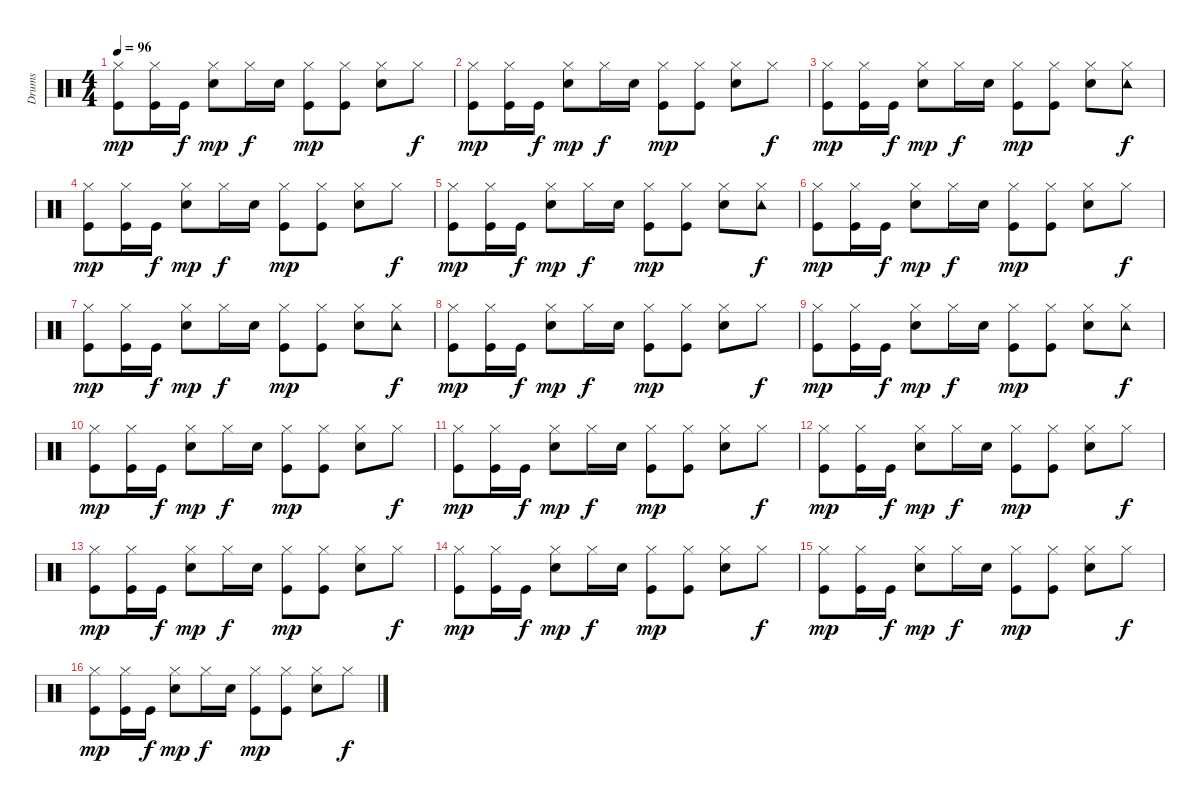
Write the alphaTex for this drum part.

\track ("Drums" "Drums") {instrument percussion}
\staff {score}
\articulation defaults
\ts (4 4)
\tempo 96
\clef neutral
\ks c
("Hi-Hat (closed)" "Kick (hit)").8{dy mp} ("Hi-Hat (closed)" "Kick (hit)").16 "Kick (hit)".16{dy f} ("Hi-Hat (closed)" "Electric Snare (hit)").8{dy mp} "Hi-Hat (closed)".16{dy f} "Electric Snare (hit)".16 ("Hi-Hat (closed)" "Kick (hit)").8{dy mp} ("Hi-Hat (closed)" "Kick (hit)").8 ("Hi-Hat (closed)" "Electric Snare (hit)").8 "Hi-Hat (closed)".8{dy f} |
("Hi-Hat (closed)" "Kick (hit)").8{dy mp} ("Hi-Hat (closed)" "Kick (hit)").16 "Kick (hit)".16{dy f} ("Hi-Hat (closed)" "Electric Snare (hit)").8{dy mp} "Hi-Hat (closed)".16{dy f} "Electric Snare (hit)".16 ("Hi-Hat (closed)" "Kick (hit)").8{dy mp} ("Hi-Hat (closed)" "Kick (hit)").8 ("Hi-Hat (closed)" "Electric Snare (hit)").8 "Hi-Hat (closed)".8{dy f} |
("Hi-Hat (closed)" "Kick (hit)").8{dy mp} ("Hi-Hat (closed)" "Kick (hit)").16 "Kick (hit)".16{dy f} ("Hi-Hat (closed)" "Electric Snare (hit)").8{dy mp} "Hi-Hat (closed)".16{dy f} "Electric Snare (hit)".16 ("Hi-Hat (closed)" "Kick (hit)").8{dy mp} ("Hi-Hat (closed)" "Kick (hit)").8 ("Hi-Hat (closed)" "Electric Snare (hit)").8 ("Tambourine (hit)" "Hi-Hat (closed)").8{dy f} |
("Hi-Hat (closed)" "Kick (hit)").8{dy mp} ("Hi-Hat (closed)" "Kick (hit)").16 "Kick (hit)".16{dy f} ("Hi-Hat (closed)" "Electric Snare (hit)").8{dy mp} "Hi-Hat (closed)".16{dy f} "Electric Snare (hit)".16 ("Hi-Hat (closed)" "Kick (hit)").8{dy mp} ("Hi-Hat (closed)" "Kick (hit)").8 ("Hi-Hat (closed)" "Electric Snare (hit)").8 "Hi-Hat (closed)".8{dy f} |
("Hi-Hat (closed)" "Kick (hit)").8{dy mp} ("Hi-Hat (closed)" "Kick (hit)").16 "Kick (hit)".16{dy f} ("Hi-Hat (closed)" "Electric Snare (hit)").8{dy mp} "Hi-Hat (closed)".16{dy f} "Electric Snare (hit)".16 ("Hi-Hat (closed)" "Kick (hit)").8{dy mp} ("Hi-Hat (closed)" "Kick (hit)").8 ("Hi-Hat (closed)" "Electric Snare (hit)").8 ("Tambourine (hit)" "Hi-Hat (closed)").8{dy f} |
("Hi-Hat (closed)" "Kick (hit)").8{dy mp} ("Hi-Hat (closed)" "Kick (hit)").16 "Kick (hit)".16{dy f} ("Hi-Hat (closed)" "Electric Snare (hit)").8{dy mp} "Hi-Hat (closed)".16{dy f} "Electric Snare (hit)".16 ("Hi-Hat (closed)" "Kick (hit)").8{dy mp} ("Hi-Hat (closed)" "Kick (hit)").8 ("Hi-Hat (closed)" "Electric Snare (hit)").8 "Hi-Hat (closed)".8{dy f} |
("Hi-Hat (closed)" "Kick (hit)").8{dy mp} ("Hi-Hat (closed)" "Kick (hit)").16 "Kick (hit)".16{dy f} ("Hi-Hat (closed)" "Electric Snare (hit)").8{dy mp} "Hi-Hat (closed)".16{dy f} "Electric Snare (hit)".16 ("Hi-Hat (closed)" "Kick (hit)").8{dy mp} ("Hi-Hat (closed)" "Kick (hit)").8 ("Hi-Hat (closed)" "Electric Snare (hit)").8 ("Tambourine (hit)" "Hi-Hat (closed)").8{dy f} |
("Hi-Hat (closed)" "Kick (hit)").8{dy mp} ("Hi-Hat (closed)" "Kick (hit)").16 "Kick (hit)".16{dy f} ("Hi-Hat (closed)" "Electric Snare (hit)").8{dy mp} "Hi-Hat (closed)".16{dy f} "Electric Snare (hit)".16 ("Hi-Hat (closed)" "Kick (hit)").8{dy mp} ("Hi-Hat (closed)" "Kick (hit)").8 ("Hi-Hat (closed)" "Electric Snare (hit)").8 "Hi-Hat (closed)".8{dy f} |
("Hi-Hat (closed)" "Kick (hit)").8{dy mp} ("Hi-Hat (closed)" "Kick (hit)").16 "Kick (hit)".16{dy f} ("Hi-Hat (closed)" "Electric Snare (hit)").8{dy mp} "Hi-Hat (closed)".16{dy f} "Electric Snare (hit)".16 ("Hi-Hat (closed)" "Kick (hit)").8{dy mp} ("Hi-Hat (closed)" "Kick (hit)").8 ("Hi-Hat (closed)" "Electric Snare (hit)").8 ("Tambourine (hit)" "Hi-Hat (closed)").8{dy f} |
("Hi-Hat (closed)" "Kick (hit)").8{dy mp} ("Hi-Hat (closed)" "Kick (hit)").16 "Kick (hit)".16{dy f} ("Hi-Hat (closed)" "Electric Snare (hit)").8{dy mp} "Hi-Hat (closed)".16{dy f} "Electric Snare (hit)".16 ("Hi-Hat (closed)" "Kick (hit)").8{dy mp} ("Hi-Hat (closed)" "Kick (hit)").8 ("Hi-Hat (closed)" "Electric Snare (hit)").8 "Hi-Hat (closed)".8{dy f} |
("Hi-Hat (closed)" "Kick (hit)").8{dy mp} ("Hi-Hat (closed)" "Kick (hit)").16 "Kick (hit)".16{dy f} ("Hi-Hat (closed)" "Electric Snare (hit)").8{dy mp} "Hi-Hat (closed)".16{dy f} "Electric Snare (hit)".16 ("Hi-Hat (closed)" "Kick (hit)").8{dy mp} ("Hi-Hat (closed)" "Kick (hit)").8 ("Hi-Hat (closed)" "Electric Snare (hit)").8 "Hi-Hat (closed)".8{dy f} |
("Hi-Hat (closed)" "Kick (hit)").8{dy mp} ("Hi-Hat (closed)" "Kick (hit)").16 "Kick (hit)".16{dy f} ("Hi-Hat (closed)" "Electric Snare (hit)").8{dy mp} "Hi-Hat (closed)".16{dy f} "Electric Snare (hit)".16 ("Hi-Hat (closed)" "Kick (hit)").8{dy mp} ("Hi-Hat (closed)" "Kick (hit)").8 ("Hi-Hat (closed)" "Electric Snare (hit)").8 "Hi-Hat (closed)".8{dy f} |
("Hi-Hat (closed)" "Kick (hit)").8{dy mp} ("Hi-Hat (closed)" "Kick (hit)").16 "Kick (hit)".16{dy f} ("Hi-Hat (closed)" "Electric Snare (hit)").8{dy mp} "Hi-Hat (closed)".16{dy f} "Electric Snare (hit)".16 ("Hi-Hat (closed)" "Kick (hit)").8{dy mp} ("Hi-Hat (closed)" "Kick (hit)").8 ("Hi-Hat (closed)" "Electric Snare (hit)").8 "Hi-Hat (closed)".8{dy f} |
("Hi-Hat (closed)" "Kick (hit)").8{dy mp} ("Hi-Hat (closed)" "Kick (hit)").16 "Kick (hit)".16{dy f} ("Hi-Hat (closed)" "Electric Snare (hit)").8{dy mp} "Hi-Hat (closed)".16{dy f} "Electric Snare (hit)".16 ("Hi-Hat (closed)" "Kick (hit)").8{dy mp} ("Hi-Hat (closed)" "Kick (hit)").8 ("Hi-Hat (closed)" "Electric Snare (hit)").8 "Hi-Hat (closed)".8{dy f} |
("Hi-Hat (closed)" "Kick (hit)").8{dy mp} ("Hi-Hat (closed)" "Kick (hit)").16 "Kick (hit)".16{dy f} ("Hi-Hat (closed)" "Electric Snare (hit)").8{dy mp} "Hi-Hat (closed)".16{dy f} "Electric Snare (hit)".16 ("Hi-Hat (closed)" "Kick (hit)").8{dy mp} ("Hi-Hat (closed)" "Kick (hit)").8 ("Hi-Hat (closed)" "Electric Snare (hit)").8 "Hi-Hat (closed)".8{dy f} |
("Hi-Hat (closed)" "Kick (hit)").8{dy mp} ("Hi-Hat (closed)" "Kick (hit)").16 "Kick (hit)".16{dy f} ("Hi-Hat (closed)" "Electric Snare (hit)").8{dy mp} "Hi-Hat (closed)".16{dy f} "Electric Snare (hit)".16 ("Hi-Hat (closed)" "Kick (hit)").8{dy mp} ("Hi-Hat (closed)" "Kick (hit)").8 ("Hi-Hat (closed)" "Electric Snare (hit)").8 "Hi-Hat (closed)".8{dy f}
